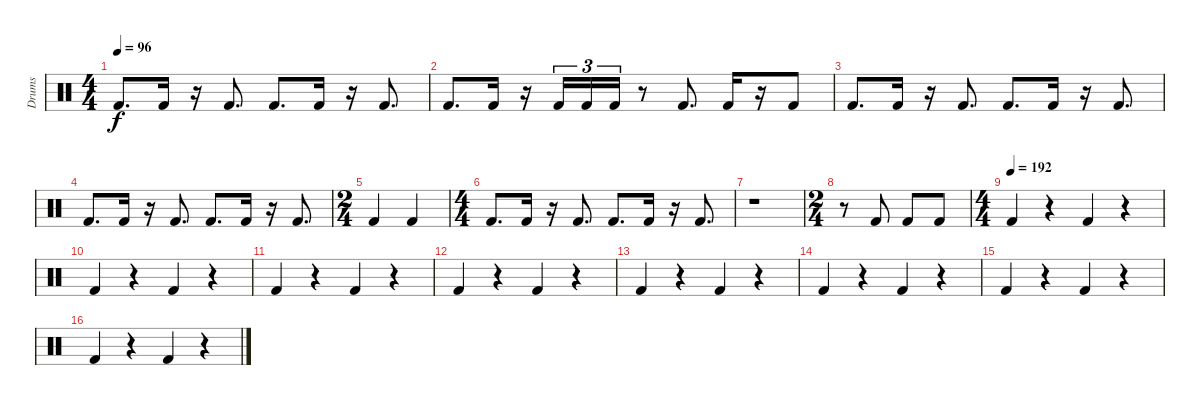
\track ("Drums" "Drums") {instrument percussion}
\staff {score}
\articulation defaults
\ts (4 4)
\tempo 96
\clef neutral
\ks c "Kick (hit) 2".8{d dy f} "Kick (hit) 2".16
r.16 "Kick (hit) 2".8{d} "Kick (hit) 2".8{d} "Kick (hit) 2".16 r.16 "Kick (hit) 2".8{d} |
"Kick (hit) 2".8{d} "Kick (hit) 2".16 r.16 "Kick (hit) 2".16{tu (3 2)} "Kick (hit) 2".16{tu (3 2)} "Kick (hit) 2".16{tu (3 2)} r.8 "Kick (hit) 2".8{d} "Kick (hit) 2".16 r.16 "Kick (hit) 2".8 |
"Kick (hit) 2".8{d} "Kick (hit) 2".16 r.16 "Kick (hit) 2".8{d} "Kick (hit) 2".8{d} "Kick (hit) 2".16 r.16 "Kick (hit) 2".8{d} |
"Kick (hit) 2".8{d} "Kick (hit) 2".16 r.16 "Kick (hit) 2".8{d} "Kick (hit) 2".8{d} "Kick (hit) 2".16 r.16 "Kick (hit) 2".8{d} |
\ts (2 4)
"Kick (hit) 2".4 "Kick (hit) 2".4 |
\ts (4 4)
"Kick (hit) 2".8{d} "Kick (hit) 2".16 r.16 "Kick (hit) 2".8{d} "Kick (hit) 2".8{d} "Kick (hit) 2".16 r.16 "Kick (hit) 2".8{d} |
r.1 |
\ts (2 4)
r.8 "Kick (hit) 2".8 "Kick (hit) 2".8 "Kick (hit) 2".8 |
\ts (4 4)
\tempo (192)
"Kick (hit) 2".4 r.4 "Kick (hit) 2".4 r.4 |
"Kick (hit) 2".4 r.4 "Kick (hit) 2".4 r.4 |
"Kick (hit) 2".4 r.4 "Kick (hit) 2".4 r.4 |
"Kick (hit) 2".4 r.4 "Kick (hit) 2".4 r.4 |
"Kick (hit) 2".4 r.4 "Kick (hit) 2".4 r.4 |
"Kick (hit) 2".4 r.4 "Kick (hit) 2".4 r.4 |
"Kick (hit) 2".4 r.4 "Kick (hit) 2".4 r.4 |
"Kick (hit) 2".4 r.4 "Kick (hit) 2".4 r.4
